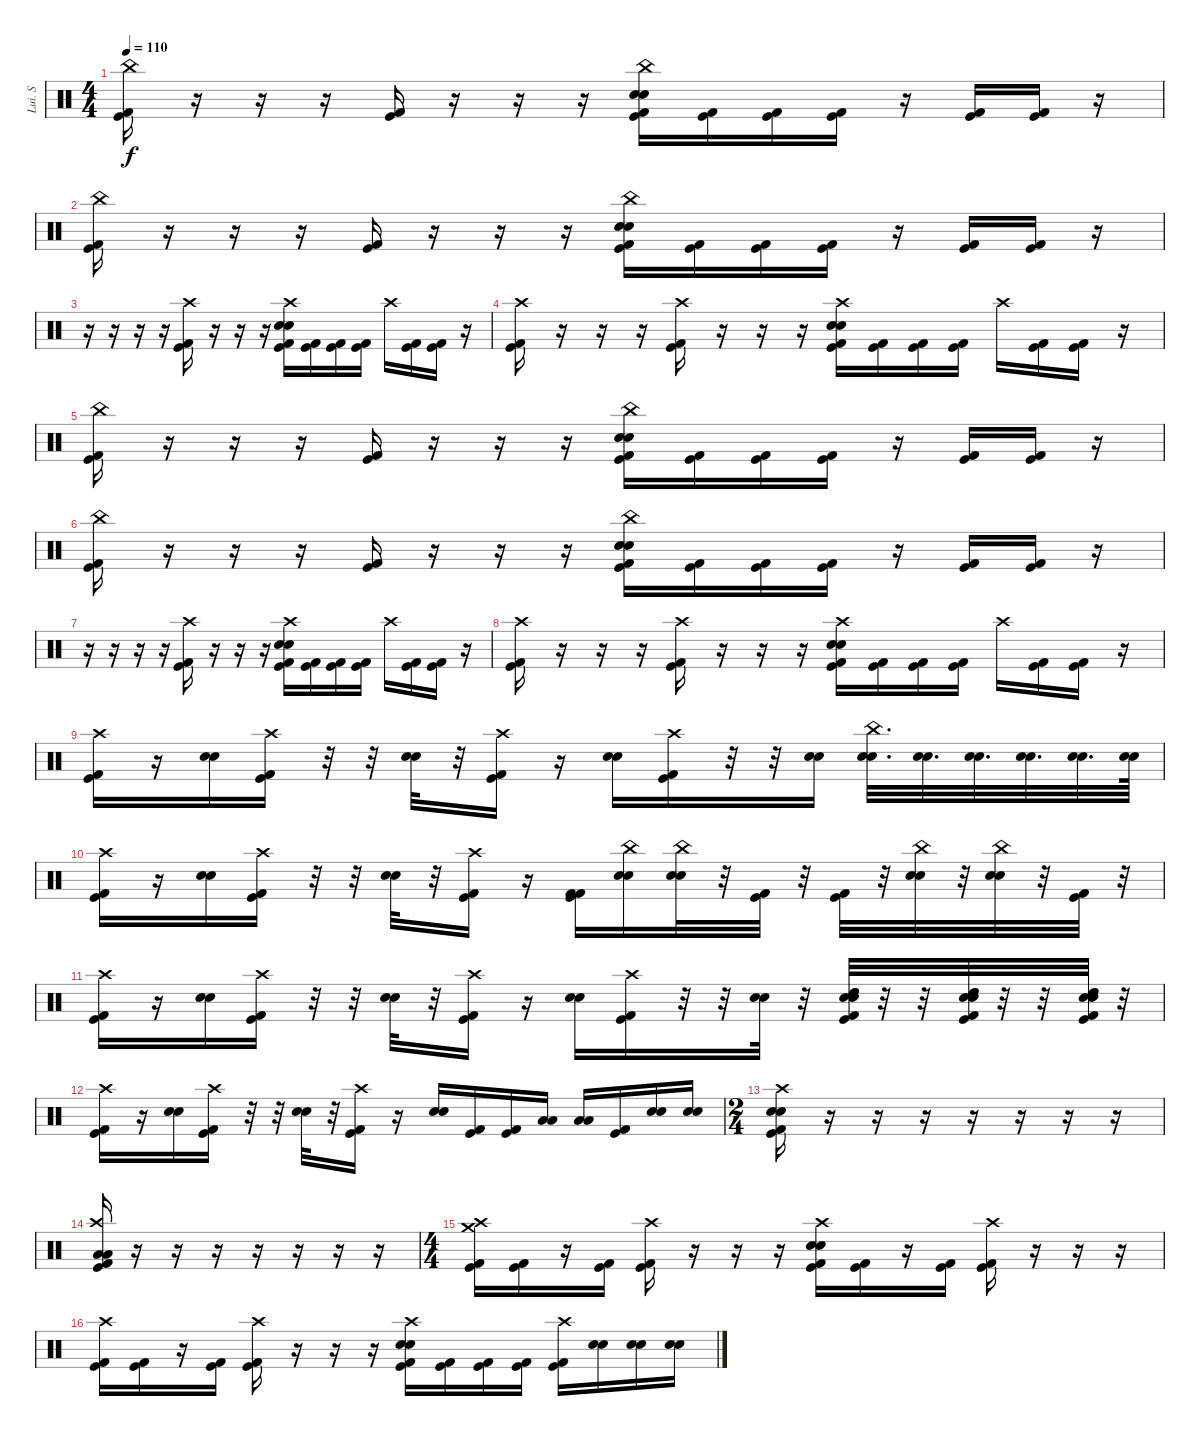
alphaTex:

\track ("Lui. S" "Lui. S") {instrument percussion}
\staff {score}
\articulation defaults
\ts (4 4)
\tempo 110
\clef neutral
\ks c
("China (hit)" "Kick (hit)" "Kick (hit) 2").16{dy f} r.16 r.16 r.16 ("Kick (hit)" "Kick (hit) 2").16 r.16 r.16 r.16 ("China (hit)" "Electric Snare (hit)" "Snare (hit) 2" "Kick (hit)" "Kick (hit) 2").16 ("Kick (hit)" "Kick (hit) 2").16 ("Kick (hit)" "Kick (hit) 2").16 ("Kick (hit)" "Kick (hit) 2").16 r.16 ("Kick (hit)" "Kick (hit) 2").16 ("Kick (hit)" "Kick (hit) 2").16 r.16 |
("China (hit)" "Kick (hit)" "Kick (hit) 2").16 r.16 r.16 r.16 ("Kick (hit)" "Kick (hit) 2").16 r.16 r.16 r.16 ("China (hit)" "Electric Snare (hit)" "Snare (hit) 2" "Kick (hit)" "Kick (hit) 2").16 ("Kick (hit)" "Kick (hit) 2").16 ("Kick (hit)" "Kick (hit) 2").16 ("Kick (hit)" "Kick (hit) 2").16 r.16 ("Kick (hit)" "Kick (hit) 2").16 ("Kick (hit)" "Kick (hit) 2").16 r.16 |
r.16 r.16 r.16 r.16 ("Crash high (hit)" "Kick (hit)" "Kick (hit) 2").16 r.16 r.16 r.16 ("Crash high (hit)" "Electric Snare (hit)" "Snare (hit) 2" "Kick (hit)" "Kick (hit) 2").16 ("Kick (hit)" "Kick (hit) 2").16 ("Kick (hit)" "Kick (hit) 2").16 ("Kick (hit)" "Kick (hit) 2").16 "Crash high (hit)".16 ("Kick (hit)" "Kick (hit) 2").16 ("Kick (hit)" "Kick (hit) 2").16 r.16 |
("Crash high (hit)" "Kick (hit)" "Kick (hit) 2").16 r.16 r.16 r.16 ("Crash high (hit)" "Kick (hit)" "Kick (hit) 2").16 r.16 r.16 r.16 ("Crash high (hit)" "Electric Snare (hit)" "Snare (hit) 2" "Kick (hit)" "Kick (hit) 2").16 ("Kick (hit)" "Kick (hit) 2").16 ("Kick (hit)" "Kick (hit) 2").16 ("Kick (hit)" "Kick (hit) 2").16 "Crash high (hit)".16 ("Kick (hit)" "Kick (hit) 2").16 ("Kick (hit)" "Kick (hit) 2").16 r.16 |
("China (hit)" "Kick (hit)" "Kick (hit) 2").16 r.16 r.16 r.16 ("Kick (hit)" "Kick (hit) 2").16 r.16 r.16 r.16 ("China (hit)" "Electric Snare (hit)" "Snare (hit) 2" "Kick (hit)" "Kick (hit) 2").16 ("Kick (hit)" "Kick (hit) 2").16 ("Kick (hit)" "Kick (hit) 2").16 ("Kick (hit)" "Kick (hit) 2").16 r.16 ("Kick (hit)" "Kick (hit) 2").16 ("Kick (hit)" "Kick (hit) 2").16 r.16 |
("China (hit)" "Kick (hit)" "Kick (hit) 2").16 r.16 r.16 r.16 ("Kick (hit)" "Kick (hit) 2").16 r.16 r.16 r.16 ("China (hit)" "Electric Snare (hit)" "Snare (hit) 2" "Kick (hit)" "Kick (hit) 2").16 ("Kick (hit)" "Kick (hit) 2").16 ("Kick (hit)" "Kick (hit) 2").16 ("Kick (hit)" "Kick (hit) 2").16 r.16 ("Kick (hit)" "Kick (hit) 2").16 ("Kick (hit)" "Kick (hit) 2").16 r.16 |
r.16 r.16 r.16 r.16 ("Crash high (hit)" "Kick (hit)" "Kick (hit) 2").16 r.16 r.16 r.16 ("Crash high (hit)" "Electric Snare (hit)" "Snare (hit) 2" "Kick (hit)" "Kick (hit) 2").16 ("Kick (hit)" "Kick (hit) 2").16 ("Kick (hit)" "Kick (hit) 2").16 ("Kick (hit)" "Kick (hit) 2").16 "Crash high (hit)".16 ("Kick (hit)" "Kick (hit) 2").16 ("Kick (hit)" "Kick (hit) 2").16 r.16 |
("Crash high (hit)" "Kick (hit)" "Kick (hit) 2").16 r.16 r.16 r.16 ("Crash high (hit)" "Kick (hit)" "Kick (hit) 2").16 r.16 r.16 r.16 ("Crash high (hit)" "Electric Snare (hit)" "Snare (hit) 2" "Kick (hit)" "Kick (hit) 2").16 ("Kick (hit)" "Kick (hit) 2").16 ("Kick (hit)" "Kick (hit) 2").16 ("Kick (hit)" "Kick (hit) 2").16 "Crash high (hit)".16 ("Kick (hit)" "Kick (hit) 2").16 ("Kick (hit)" "Kick (hit) 2").16 r.16 |
("Crash high (hit)" "Kick (hit) 2" "Kick (hit)").16 r.16 ("Electric Snare (hit)" "Snare (hit) 2").16 ("Crash high (hit)" "Kick (hit)" "Kick (hit) 2").16 r.32 r.32 ("Electric Snare (hit)" "Snare (hit) 2").32 r.32 ("Crash high (hit)" "Kick (hit) 2" "Kick (hit)").16 r.16 ("Electric Snare (hit)" "Snare (hit) 2").16 ("Crash high (hit)" "Kick (hit)" "Kick (hit) 2").16 r.32 r.32 ("Electric Snare (hit)" "Snare (hit) 2").16 ("China (hit)" "Electric Snare (hit)" "Snare (hit) 2").32{d} ("Electric Snare (hit)" "Snare (hit) 2").32{d} ("Electric Snare (hit)" "Snare (hit) 2").32{d} ("Electric Snare (hit)" "Snare (hit) 2").32{d} ("Electric Snare (hit)" "Snare (hit) 2").32{d} ("Electric Snare (hit)" "Snare (hit) 2").64 |
("Crash high (hit)" "Kick (hit) 2" "Kick (hit)").16 r.16 ("Electric Snare (hit)" "Snare (hit) 2").16 ("Crash high (hit)" "Kick (hit)" "Kick (hit) 2").16 r.32 r.32 ("Electric Snare (hit)" "Snare (hit) 2").32 r.32 ("Crash high (hit)" "Kick (hit) 2" "Kick (hit)").16 r.16 ("Kick (hit) 2" "Kick (hit)" "Kick (hit) 2").16 ("China (hit)" "Electric Snare (hit)" "Snare (hit) 2").16 ("China (hit)" "Electric Snare (hit)" "Snare (hit) 2").32 r.32 ("Kick (hit) 2" "Kick (hit)").32 r.32 ("Kick (hit)" "Kick (hit) 2").32 r.32 ("China (hit)" "Electric Snare (hit)" "Snare (hit) 2").32 r.32 ("China (hit)" "Electric Snare (hit)" "Snare (hit) 2").32 r.32 ("Kick (hit) 2" "Kick (hit)").32 r.32 |
("Crash high (hit)" "Kick (hit) 2" "Kick (hit)").16 r.16 ("Electric Snare (hit)" "Snare (hit) 2").16 ("Crash high (hit)" "Kick (hit)" "Kick (hit) 2").16 r.32 r.32 ("Electric Snare (hit)" "Snare (hit) 2").32 r.32 ("Crash high (hit)" "Kick (hit) 2" "Kick (hit)").16 r.16 ("Electric Snare (hit)" "Snare (hit) 2").16 ("Crash high (hit)" "Kick (hit)" "Kick (hit) 2").16 r.32 r.32 ("Electric Snare (hit)" "Snare (hit) 2").32 r.32 ("High Tom (hit)" "High Tom (hit)" "Electric Snare (hit)" "Snare (hit) 2" "Kick (hit) 2" "Kick (hit)").32 r.32 r.32 ("High Tom (hit)" "High Tom (hit)" "Electric Snare (hit)" "Snare (hit) 2" "Kick (hit) 2" "Kick (hit)").32 r.32 r.32 ("High Tom (hit)" "High Tom (hit)" "Electric Snare (hit)" "Snare (hit) 2" "Kick (hit) 2" "Kick (hit)").32 r.32 |
("Crash high (hit)" "Kick (hit) 2" "Kick (hit)").16 r.16 ("Electric Snare (hit)" "Snare (hit) 2").16 ("Crash high (hit)" "Kick (hit)" "Kick (hit) 2").16 r.32 r.32 ("Electric Snare (hit)" "Snare (hit) 2").32 r.32 ("Crash high (hit)" "Kick (hit) 2" "Kick (hit)").16 r.16 ("Electric Snare (hit)" "Snare (hit) 2").16 ("Kick (hit) 2" "Kick (hit)").16 ("Kick (hit) 2" "Kick (hit)").16 ("Low Tom (hit)" "Low Tom (hit)").16 ("Low Tom (hit)" "Low Tom (hit)").16 ("Kick (hit) 2" "Kick (hit)").16 ("Electric Snare (hit)" "Snare (hit) 2").16 ("Electric Snare (hit)" "Snare (hit) 2").16 |
\ts (2 4)
("Crash high (hit)" "Electric Snare (hit)" "Snare (hit) 2" "Kick (hit) 2" "Kick (hit)").16 r.16 r.16{volume 0} r.16 r.16 r.16 r.16 r.16 |
("Crash high (hit)" "Low Tom (hit)" "Low Tom (hit)" "Kick (hit) 2" "Kick (hit)").16{volume 14} r.16 r.16{volume 0} r.16 r.16 r.16 r.16 r.16 |
\ts (4 4)
("Crash high (hit)" "Crash medium (hit)" "Kick (hit) 2" "Kick (hit)").16{volume 14} ("Kick (hit) 2" "Kick (hit)").16 r.16 ("Kick (hit) 2" "Kick (hit)").16 ("Crash high (hit)" "Kick (hit) 2" "Kick (hit)").16 r.16 r.16 r.16 ("Crash high (hit)" "Electric Snare (hit)" "Snare (hit) 2" "Kick (hit) 2" "Kick (hit)").16 ("Kick (hit) 2" "Kick (hit)").16 r.16 ("Kick (hit) 2" "Kick (hit)").16 ("Crash high (hit)" "Kick (hit) 2" "Kick (hit)").16 r.16 r.16 r.16 |
("Crash high (hit)" "Kick (hit) 2" "Kick (hit)").16 ("Kick (hit) 2" "Kick (hit)").16 r.16 ("Kick (hit) 2" "Kick (hit)").16 ("Crash high (hit)" "Kick (hit) 2" "Kick (hit)").16 r.16 r.16 r.16 ("Crash high (hit)" "Electric Snare (hit)" "Snare (hit) 2" "Kick (hit) 2" "Kick (hit)").16 ("Kick (hit) 2" "Kick (hit)").16 ("Kick (hit) 2" "Kick (hit)").16 ("Kick (hit) 2" "Kick (hit)").16 ("Crash high (hit)" "Kick (hit) 2" "Kick (hit)").16 ("Snare (hit) 2" "Electric Snare (hit)").16 ("Snare (hit) 2" "Electric Snare (hit)").16 ("Snare (hit) 2" "Electric Snare (hit)").16
